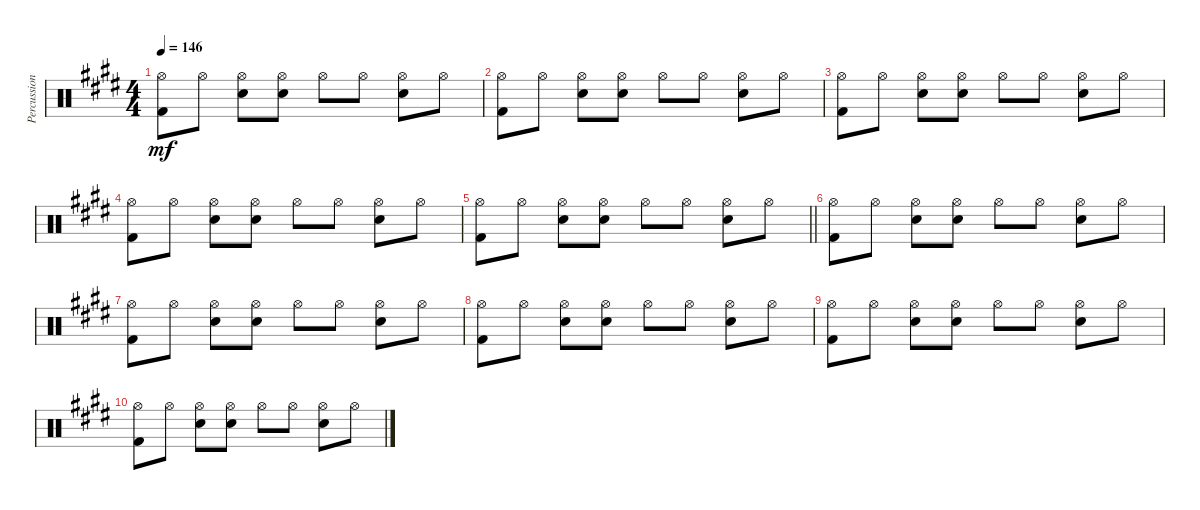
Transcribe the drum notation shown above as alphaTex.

\track ("Percussion" "Percussion") {instrument percussion}
\staff {score}
\articulation defaults
\ts (4 4)
\tempo 146
\clef neutral
\ks e
("Hi-Hat (open)" "Kick (hit) 2").8{dy mf} "Hi-Hat (open)".8 ("Hi-Hat (open)" "Snare (hit) 2").8 ("Hi-Hat (open)" "Snare (hit) 2").8 "Hi-Hat (open)".8 "Hi-Hat (open)".8 ("Hi-Hat (open)" "Snare (hit) 2").8 "Hi-Hat (open)".8 |
("Hi-Hat (open)" "Kick (hit) 2").8 "Hi-Hat (open)".8 ("Hi-Hat (open)" "Snare (hit) 2").8 ("Hi-Hat (open)" "Snare (hit) 2").8 "Hi-Hat (open)".8 "Hi-Hat (open)".8 ("Hi-Hat (open)" "Snare (hit) 2").8 "Hi-Hat (open)".8 |
("Hi-Hat (open)" "Kick (hit) 2").8 "Hi-Hat (open)".8 ("Hi-Hat (open)" "Snare (hit) 2").8 ("Hi-Hat (open)" "Snare (hit) 2").8 "Hi-Hat (open)".8 "Hi-Hat (open)".8 ("Hi-Hat (open)" "Snare (hit) 2").8 "Hi-Hat (open)".8 |
("Hi-Hat (open)" "Kick (hit) 2").8 "Hi-Hat (open)".8 ("Hi-Hat (open)" "Snare (hit) 2").8 ("Hi-Hat (open)" "Snare (hit) 2").8 "Hi-Hat (open)".8 "Hi-Hat (open)".8 ("Hi-Hat (open)" "Snare (hit) 2").8 "Hi-Hat (open)".8 |
\barLineRight lightlight
("Hi-Hat (open)" "Kick (hit) 2").8 "Hi-Hat (open)".8 ("Hi-Hat (open)" "Snare (hit) 2").8 ("Hi-Hat (open)" "Snare (hit) 2").8 "Hi-Hat (open)".8 "Hi-Hat (open)".8 ("Hi-Hat (open)" "Snare (hit) 2").8 "Hi-Hat (open)".8 |
("Hi-Hat (open)" "Kick (hit) 2").8 "Hi-Hat (open)".8 ("Hi-Hat (open)" "Snare (hit) 2").8 ("Hi-Hat (open)" "Snare (hit) 2").8 "Hi-Hat (open)".8 "Hi-Hat (open)".8 ("Hi-Hat (open)" "Snare (hit) 2").8 "Hi-Hat (open)".8 |
("Hi-Hat (open)" "Kick (hit) 2").8 "Hi-Hat (open)".8 ("Hi-Hat (open)" "Snare (hit) 2").8 ("Hi-Hat (open)" "Snare (hit) 2").8 "Hi-Hat (open)".8 "Hi-Hat (open)".8 ("Hi-Hat (open)" "Snare (hit) 2").8 "Hi-Hat (open)".8 |
("Hi-Hat (open)" "Kick (hit) 2").8 "Hi-Hat (open)".8 ("Hi-Hat (open)" "Snare (hit) 2").8 ("Hi-Hat (open)" "Snare (hit) 2").8 "Hi-Hat (open)".8 "Hi-Hat (open)".8 ("Hi-Hat (open)" "Snare (hit) 2").8 "Hi-Hat (open)".8 |
("Hi-Hat (open)" "Kick (hit) 2").8 "Hi-Hat (open)".8 ("Hi-Hat (open)" "Snare (hit) 2").8 ("Hi-Hat (open)" "Snare (hit) 2").8 "Hi-Hat (open)".8 "Hi-Hat (open)".8 ("Hi-Hat (open)" "Snare (hit) 2").8 "Hi-Hat (open)".8 |
("Hi-Hat (open)" "Kick (hit) 2").8 "Hi-Hat (open)".8 ("Hi-Hat (open)" "Snare (hit) 2").8 ("Hi-Hat (open)" "Snare (hit) 2").8 "Hi-Hat (open)".8 "Hi-Hat (open)".8 ("Hi-Hat (open)" "Snare (hit) 2").8 "Hi-Hat (open)".8
